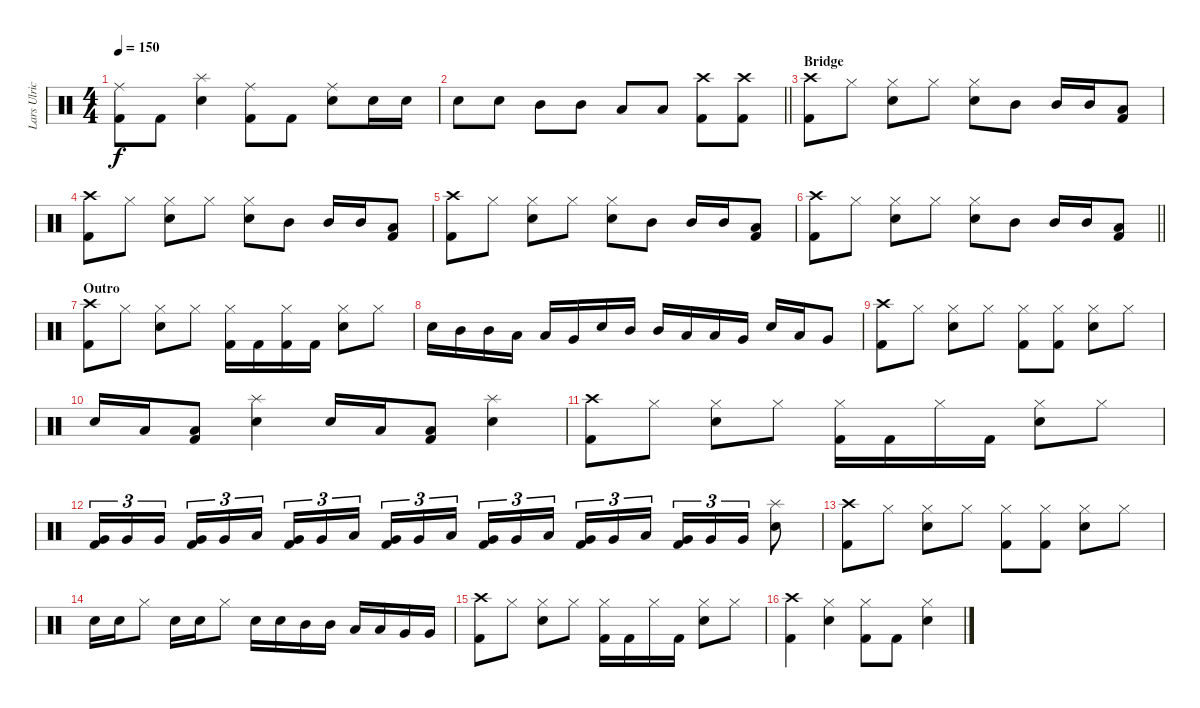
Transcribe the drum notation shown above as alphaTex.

\track ("Lars Ulrich" "Lars Ulric") {instrument percussion}
\staff {score}
\articulation defaults
\ts (4 4)
\tempo 150
\clef neutral
\ks c
("Ride (middle)" "Kick (hit) 2").8{dy f} "Kick (hit) 2".8 ("Splash (hit)" "Snare (hit) 2").4 ("Ride (middle)" "Kick (hit) 2").8 "Kick (hit) 2".8 ("Ride (middle)" "Snare (hit) 2").8 "Snare (hit) 2".16 "Snare (hit) 2".16 |
\barLineRight lightlight "Snare (hit) 2".8 "Snare (hit) 2".8 "Mid Tom (hit)".8 "Mid Tom (hit)".8 "Low Tom (hit)".8 "Low Tom (hit)".8
("Crash high (hit)" "Kick (hit) 2").8 ("Crash high (hit)" "Kick (hit) 2").8 |
\section ("" "Bridge")
("Crash high (hit)" "Kick (hit) 2").8 "Hi-Hat (closed)".8 ("Hi-Hat (closed)" "Snare (hit) 2").8 "Hi-Hat (closed)".8 ("Hi-Hat (closed)" "Snare (hit) 2").8 "Mid Tom (hit)".8 "Mid Tom (hit)".16 "Mid Tom (hit)".16 ("Low Tom (hit)" "Kick (hit) 2").8 |
("Crash high (hit)" "Kick (hit) 2").8 "Hi-Hat (closed)".8 ("Hi-Hat (closed)" "Snare (hit) 2").8 "Hi-Hat (closed)".8 ("Hi-Hat (closed)" "Snare (hit) 2").8 "Mid Tom (hit)".8 "Mid Tom (hit)".16 "Mid Tom (hit)".16 ("Low Tom (hit)" "Kick (hit) 2").8 |
("Crash high (hit)" "Kick (hit) 2").8 "Hi-Hat (closed)".8 ("Hi-Hat (closed)" "Snare (hit) 2").8 "Hi-Hat (closed)".8 ("Hi-Hat (closed)" "Snare (hit) 2").8 "Mid Tom (hit)".8 "Mid Tom (hit)".16 "Mid Tom (hit)".16 ("Low Tom (hit)" "Kick (hit) 2").8 |
\barLineRight lightlight
("Crash high (hit)" "Kick (hit) 2").8 "Hi-Hat (closed)".8 ("Hi-Hat (closed)" "Snare (hit) 2").8 "Hi-Hat (closed)".8 ("Hi-Hat (closed)" "Snare (hit) 2").8 "Mid Tom (hit)".8 "Mid Tom (hit)".16 "Mid Tom (hit)".16 ("Low Tom (hit)" "Kick (hit) 2").8 |
\section ("" "Outro")
("Crash high (hit)" "Kick (hit) 2").8 "Hi-Hat (closed)".8 ("Hi-Hat (closed)" "Snare (hit) 2").8 "Hi-Hat (closed)".8 ("Hi-Hat (closed)" "Kick (hit) 2").16 "Kick (hit) 2".16 ("Hi-Hat (closed)" "Kick (hit) 2").16 "Kick (hit) 2".16 ("Hi-Hat (closed)" "Snare (hit) 2").8 "Hi-Hat (closed)".8 |
"Snare (hit) 2".16 "Mid Tom (hit)".16 "Mid Tom (hit)".16 "Low Tom (hit)".16 "Low Tom (hit)".16 "Very Low Tom (hit)".16 "Snare (hit) 2".16 "Mid Tom (hit)".16 "Mid Tom (hit)".16 "Low Tom (hit)".16 "Low Tom (hit)".16 "Very Low Tom (hit)".16 "Snare (hit) 2".16 "Low Tom (hit)".16 "Very Low Tom (hit)".8 |
("Crash high (hit)" "Kick (hit) 2").8 "Hi-Hat (closed)".8 ("Hi-Hat (closed)" "Snare (hit) 2").8 "Hi-Hat (closed)".8 ("Hi-Hat (closed)" "Kick (hit) 2").8 ("Hi-Hat (closed)" "Kick (hit) 2").8 ("Hi-Hat (closed)" "Snare (hit) 2").8 "Hi-Hat (closed)".8 |
"Snare (hit) 2".16 "Low Tom (hit)".16 ("Low Tom (hit)" "Kick (hit) 2").8 ("Splash (hit)" "Snare (hit) 2").4 "Snare (hit) 2".16 "Low Tom (hit)".16 ("Low Tom (hit)" "Kick (hit) 2").8 ("Splash (hit)" "Snare (hit) 2").4 |
("Crash high (hit)" "Kick (hit) 2").8 "Hi-Hat (closed)".8 ("Hi-Hat (closed)" "Snare (hit) 2").8 "Hi-Hat (closed)".8 ("Hi-Hat (closed)" "Kick (hit) 2").16 "Kick (hit) 2".16 "Hi-Hat (closed)".16 "Kick (hit) 2".16 ("Hi-Hat (closed)" "Snare (hit) 2").8 "Hi-Hat (closed)".8 |
("Very Low Tom (hit)" "Kick (hit) 2").16{tu (3 2)} "Very Low Tom (hit)".16{tu (3 2)} "Very Low Tom (hit)".16{tu (3 2) beam splitsecondary} ("Very Low Tom (hit)" "Kick (hit) 2").16{tu (3 2)} "Very Low Tom (hit)".16{tu (3 2)} "Low Floor Tom (hit)".16{tu (3 2)} ("Very Low Tom (hit)" "Kick (hit) 2").16{tu (3 2)} "Very Low Tom (hit)".16{tu (3 2)} "Low Floor Tom (hit)".16{tu (3 2) beam splitsecondary} ("Very Low Tom (hit)" "Kick (hit) 2").16{tu (3 2)} "Very Low Tom (hit)".16{tu (3 2)} "Low Floor Tom (hit)".16{tu (3 2)} ("Very Low Tom (hit)" "Kick (hit) 2").16{tu (3 2)} "Very Low Tom (hit)".16{tu (3 2)} "Low Floor Tom (hit)".16{tu (3 2) beam splitsecondary} ("Very Low Tom (hit)" "Kick (hit) 2").16{tu (3 2)} "Very Low Tom (hit)".16{tu (3 2)} "Low Floor Tom (hit)".16{tu (3 2)} ("Very Low Tom (hit)" "Kick (hit) 2").16{tu (3 2)} "Very Low Tom (hit)".16{tu (3 2)} "Very Low Tom (hit)".16{tu (3 2)} ("Splash (hit)" "Snare (hit) 2").8 |
("Crash high (hit)" "Kick (hit) 2").8 "Hi-Hat (closed)".8 ("Hi-Hat (closed)" "Snare (hit) 2").8 "Hi-Hat (closed)".8 ("Hi-Hat (closed)" "Kick (hit) 2").8 ("Hi-Hat (closed)" "Kick (hit) 2").8 ("Hi-Hat (closed)" "Snare (hit) 2").8 "Hi-Hat (closed)".8 |
"Snare (hit) 2".16 "Snare (hit) 2".16 "Hi-Hat (closed)".8 "Snare (hit) 2".16 "Snare (hit) 2".16 "Hi-Hat (closed)".8 "Snare (hit) 2".16 "Snare (hit) 2".16 "Mid Tom (hit)".16 "Mid Tom (hit)".16 "Low Tom (hit)".16 "Low Tom (hit)".16 "Very Low Tom (hit)".16 "Very Low Tom (hit)".16 |
("Crash high (hit)" "Kick (hit) 2").8 "Hi-Hat (closed)".8 ("Hi-Hat (closed)" "Snare (hit) 2").8 "Hi-Hat (closed)".8 ("Hi-Hat (closed)" "Kick (hit) 2").16 "Kick (hit) 2".16 "Hi-Hat (closed)".16 "Kick (hit) 2".16 ("Hi-Hat (closed)" "Snare (hit) 2").8 "Hi-Hat (closed)".8 |
("Crash high (hit)" "Kick (hit) 2").4 ("Hi-Hat (closed)" "Snare (hit) 2").4 ("Hi-Hat (closed)" "Kick (hit) 2").8 "Kick (hit) 2".8 ("Hi-Hat (closed)" "Snare (hit) 2").4
